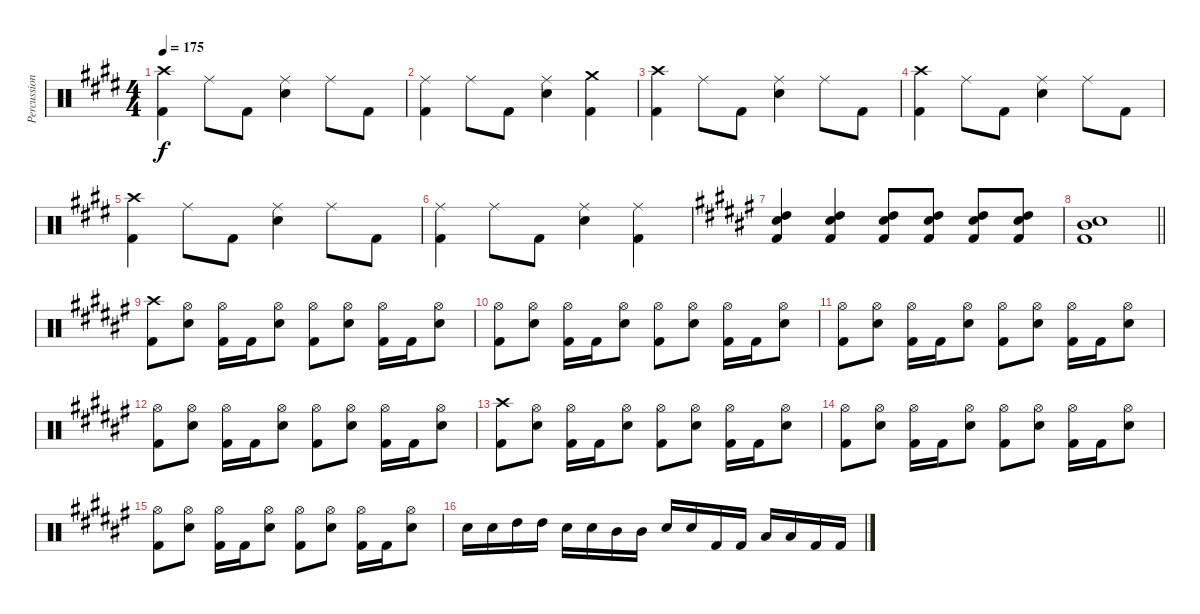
\track ("Percussions" "Percussion") {instrument percussion}
\staff {score}
\articulation defaults
\ts (4 4)
\tempo 175
\clef neutral
\ks e
("Crash high (hit)" "Kick (hit) 2").4{dy f} "Ride (middle)".8 "Kick (hit) 2".8 ("Ride (middle)" "Snare (hit) 2").4 "Ride (middle)".8 "Kick (hit) 2".8 |
("Ride (middle)" "Kick (hit) 2").4 "Ride (middle)".8 "Kick (hit) 2".8 ("Ride (middle)" "Snare (hit) 2").4 ("Crash medium (hit)" "Kick (hit) 2").4 |
("Crash high (hit)" "Kick (hit) 2").4 "Ride (middle)".8 "Kick (hit) 2".8 ("Ride (middle)" "Snare (hit) 2").4 "Ride (middle)".8 "Kick (hit) 2".8 |
("Crash high (hit)" "Kick (hit) 2").4 "Ride (middle)".8 "Kick (hit) 2".8 ("Ride (middle)" "Snare (hit) 2").4 "Ride (middle)".8 "Kick (hit) 2".8 |
("Crash high (hit)" "Kick (hit) 2").4 "Ride (middle)".8 "Kick (hit) 2".8 ("Ride (middle)" "Snare (hit) 2").4 "Ride (middle)".8 "Kick (hit) 2".8 |
("Ride (middle)" "Kick (hit) 2").4 "Ride (middle)".8 "Kick (hit) 2".8 ("Ride (middle)" "Snare (hit) 2").4 ("Ride (middle)" "Kick (hit) 2").4 |
\ks f#
("Snare (hit) 2" "High Tom (hit)" "Kick (hit) 2").4 ("Snare (hit) 2" "High Tom (hit)" "Kick (hit) 2").4 ("Snare (hit) 2" "High Tom (hit)" "Kick (hit) 2").8 ("Snare (hit) 2" "High Tom (hit)" "Kick (hit) 2").8 ("Snare (hit) 2" "High Tom (hit)" "Kick (hit) 2").8 ("Snare (hit) 2" "High Tom (hit)" "Kick (hit) 2").8 |
\barLineRight lightlight
("Snare (hit) 2" "Mid Tom (hit)" "Kick (hit) 2").1 |
("Crash high (hit)" "Kick (hit) 2").8 ("Hi-Hat (open)" "Snare (hit) 2").8 ("Hi-Hat (open)" "Kick (hit) 2").16 "Kick (hit) 2".16 ("Hi-Hat (open)" "Snare (hit) 2").8 ("Hi-Hat (open)" "Kick (hit) 2").8 ("Hi-Hat (open)" "Snare (hit) 2").8 ("Hi-Hat (open)" "Kick (hit) 2").16 "Kick (hit) 2".16 ("Hi-Hat (open)" "Snare (hit) 2").8 |
("Hi-Hat (open)" "Kick (hit) 2").8 ("Hi-Hat (open)" "Snare (hit) 2").8 ("Hi-Hat (open)" "Kick (hit) 2").16 "Kick (hit) 2".16 ("Hi-Hat (open)" "Snare (hit) 2").8 ("Hi-Hat (open)" "Kick (hit) 2").8 ("Hi-Hat (open)" "Snare (hit) 2").8 ("Hi-Hat (open)" "Kick (hit) 2").16 "Kick (hit) 2".16 ("Hi-Hat (open)" "Snare (hit) 2").8 |
("Hi-Hat (open)" "Kick (hit) 2").8 ("Hi-Hat (open)" "Snare (hit) 2").8 ("Hi-Hat (open)" "Kick (hit) 2").16 "Kick (hit) 2".16 ("Hi-Hat (open)" "Snare (hit) 2").8 ("Hi-Hat (open)" "Kick (hit) 2").8 ("Hi-Hat (open)" "Snare (hit) 2").8 ("Hi-Hat (open)" "Kick (hit) 2").16 "Kick (hit) 2".16 ("Hi-Hat (open)" "Snare (hit) 2").8 |
("Hi-Hat (open)" "Kick (hit) 2").8 ("Hi-Hat (open)" "Snare (hit) 2").8 ("Hi-Hat (open)" "Kick (hit) 2").16 "Kick (hit) 2".16 ("Hi-Hat (open)" "Snare (hit) 2").8 ("Hi-Hat (open)" "Kick (hit) 2").8 ("Hi-Hat (open)" "Snare (hit) 2").8 ("Hi-Hat (open)" "Kick (hit) 2").16 "Kick (hit) 2".16 ("Hi-Hat (open)" "Snare (hit) 2").8 |
("Crash high (hit)" "Kick (hit) 2").8 ("Hi-Hat (open)" "Snare (hit) 2").8 ("Hi-Hat (open)" "Kick (hit) 2").16 "Kick (hit) 2".16 ("Hi-Hat (open)" "Snare (hit) 2").8 ("Hi-Hat (open)" "Kick (hit) 2").8 ("Hi-Hat (open)" "Snare (hit) 2").8 ("Hi-Hat (open)" "Kick (hit) 2").16 "Kick (hit) 2".16 ("Hi-Hat (open)" "Snare (hit) 2").8 |
("Hi-Hat (open)" "Kick (hit) 2").8 ("Hi-Hat (open)" "Snare (hit) 2").8 ("Hi-Hat (open)" "Kick (hit) 2").16 "Kick (hit) 2".16 ("Hi-Hat (open)" "Snare (hit) 2").8 ("Hi-Hat (open)" "Kick (hit) 2").8 ("Hi-Hat (open)" "Snare (hit) 2").8 ("Hi-Hat (open)" "Kick (hit) 2").16 "Kick (hit) 2".16 ("Hi-Hat (open)" "Snare (hit) 2").8 |
("Hi-Hat (open)" "Kick (hit) 2").8 ("Hi-Hat (open)" "Snare (hit) 2").8 ("Hi-Hat (open)" "Kick (hit) 2").16 "Kick (hit) 2".16 ("Hi-Hat (open)" "Snare (hit) 2").8 ("Hi-Hat (open)" "Kick (hit) 2").8 ("Hi-Hat (open)" "Snare (hit) 2").8 ("Hi-Hat (open)" "Kick (hit) 2").16 "Kick (hit) 2".16 ("Hi-Hat (open)" "Snare (hit) 2").8 |
"Snare (hit) 2".16 "Snare (hit) 2".16 "High Tom (hit)".16 "High Tom (hit)".16 "Snare (hit) 2".16 "Snare (hit) 2".16 "Mid Tom (hit)".16 "Mid Tom (hit)".16 "Snare (hit) 2".16 "Snare (hit) 2".16 "Kick (hit) 2".16 "Kick (hit) 2".16 "Low Tom (hit)".16 "Low Tom (hit)".16 "Kick (hit) 2".16 "Kick (hit) 2".16
